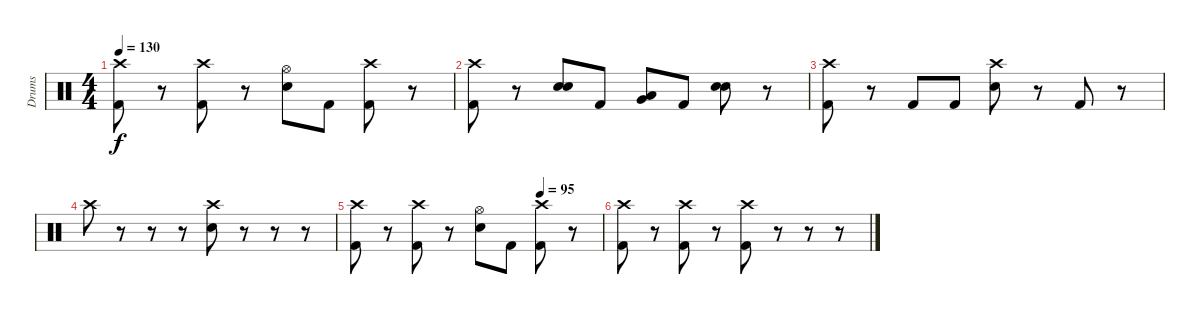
\track ("Drums" "Drums") {instrument percussion}
\staff {score}
\articulation defaults
\ts (4 4)
\tempo 130
\clef neutral
\ks c
("Kick (hit) 2" "Crash high (hit)").8{dy f} r.8 ("Kick (hit) 2" "Crash high (hit)").8 r.8 ("Electric Snare (hit)" "Hi-Hat (open)").8 "Kick (hit) 2".8 ("Kick (hit) 2" "Crash high (hit)").8 r.8 |
("Kick (hit) 2" "Crash high (hit)").8 r.8 ("Electric Snare (hit)" "Electric Snare (hit)").8 "Kick (hit) 2".8 ("Low Tom (hit)" "Very Low Tom (hit)").8 "Kick (hit) 2".8 ("Electric Snare (hit)" "Electric Snare (hit)").8 r.8 |
("Kick (hit) 2" "Crash high (hit)").8 r.8 "Kick (hit) 2".8 "Kick (hit) 2".8 ("Electric Snare (hit)" "Crash high (hit)").8 r.8 "Kick (hit) 2".8 r.8 |
"Crash high (hit)".8 r.8 r.8 r.8 ("Electric Snare (hit)" "Crash high (hit)").8 r.8 r.8 r.8 |
\tempo (95 0.75)
("Kick (hit) 2" "Crash high (hit)").8 r.8 ("Kick (hit) 2" "Crash high (hit)").8 r.8 ("Electric Snare (hit)" "Hi-Hat (open)").8 "Kick (hit) 2".8 ("Kick (hit) 2" "Crash high (hit)").8 r.8 |
("Kick (hit) 2" "Crash high (hit)").8 r.8 ("Kick (hit) 2" "Crash high (hit)").8 r.8 ("Kick (hit) 2" "Crash high (hit)").8 r.8 r.8 r.8
